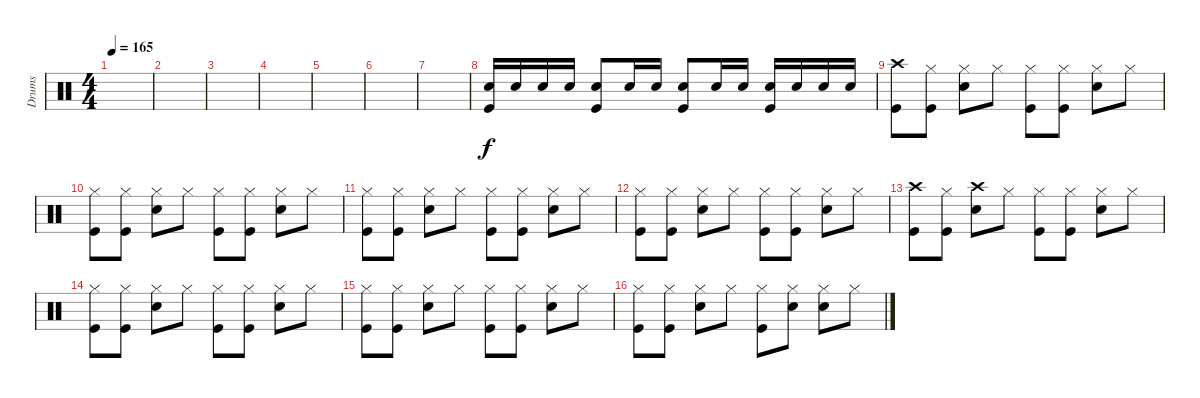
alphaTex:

\track ("Drums" "Drums") {instrument percussion}
\staff {score}
\articulation defaults
\ts (4 4)
\tempo 165
\clef neutral
\ks c
|
|
|
|
|
|
|
("Snare (hit) 2" "Kick (hit)").16 "Snare (hit) 2".16 "Snare (hit) 2".16 "Snare (hit) 2".16 ("Snare (hit) 2" "Kick (hit)").8 "Snare (hit) 2".16 "Snare (hit) 2".16 ("Snare (hit) 2" "Kick (hit)").8 "Snare (hit) 2".16 "Snare (hit) 2".16 ("Snare (hit) 2" "Kick (hit)").16 "Snare (hit) 2".16 "Snare (hit) 2".16 "Snare (hit) 2".16 |
("Crash high (hit)" "Kick (hit)").8 ("Hi-Hat (closed)" "Kick (hit)").8 ("Hi-Hat (closed)" "Snare (hit) 2").8 "Hi-Hat (closed)".8 ("Hi-Hat (closed)" "Kick (hit)").8 ("Hi-Hat (closed)" "Kick (hit)").8 ("Hi-Hat (closed)" "Snare (hit) 2").8 "Hi-Hat (closed)".8 |
("Hi-Hat (closed)" "Kick (hit)").8 ("Hi-Hat (closed)" "Kick (hit)").8 ("Hi-Hat (closed)" "Snare (hit) 2").8 "Hi-Hat (closed)".8 ("Hi-Hat (closed)" "Kick (hit)").8 ("Hi-Hat (closed)" "Kick (hit)").8 ("Hi-Hat (closed)" "Snare (hit) 2").8 "Hi-Hat (closed)".8 |
("Hi-Hat (closed)" "Kick (hit)").8 ("Hi-Hat (closed)" "Kick (hit)").8 ("Hi-Hat (closed)" "Snare (hit) 2").8 "Hi-Hat (closed)".8 ("Hi-Hat (closed)" "Kick (hit)").8 ("Hi-Hat (closed)" "Kick (hit)").8 ("Hi-Hat (closed)" "Snare (hit) 2").8 "Hi-Hat (closed)".8 |
("Hi-Hat (closed)" "Kick (hit)").8 ("Hi-Hat (closed)" "Kick (hit)").8 ("Hi-Hat (closed)" "Snare (hit) 2").8 "Hi-Hat (closed)".8 ("Hi-Hat (closed)" "Kick (hit)").8 ("Hi-Hat (closed)" "Kick (hit)").8 ("Hi-Hat (closed)" "Snare (hit) 2").8 "Hi-Hat (closed)".8 |
("Crash high (hit)" "Kick (hit)").8 ("Hi-Hat (closed)" "Kick (hit)").8 ("Crash high (hit)" "Snare (hit) 2").8 "Hi-Hat (closed)".8 ("Hi-Hat (closed)" "Kick (hit)").8 ("Hi-Hat (closed)" "Kick (hit)").8 ("Hi-Hat (closed)" "Snare (hit) 2").8 "Hi-Hat (closed)".8 |
("Hi-Hat (closed)" "Kick (hit)").8 ("Hi-Hat (closed)" "Kick (hit)").8 ("Hi-Hat (closed)" "Snare (hit) 2").8 "Hi-Hat (closed)".8 ("Hi-Hat (closed)" "Kick (hit)").8 ("Hi-Hat (closed)" "Kick (hit)").8 ("Hi-Hat (closed)" "Snare (hit) 2").8 "Hi-Hat (closed)".8 |
("Hi-Hat (closed)" "Kick (hit)").8 ("Hi-Hat (closed)" "Kick (hit)").8 ("Hi-Hat (closed)" "Snare (hit) 2").8 "Hi-Hat (closed)".8 ("Hi-Hat (closed)" "Kick (hit)").8 ("Hi-Hat (closed)" "Kick (hit)").8 ("Hi-Hat (closed)" "Snare (hit) 2").8 "Hi-Hat (closed)".8 |
("Hi-Hat (closed)" "Kick (hit)").8 ("Hi-Hat (closed)" "Kick (hit)").8 ("Hi-Hat (closed)" "Snare (hit) 2").8 "Hi-Hat (closed)".8 ("Hi-Hat (closed)" "Kick (hit)").8 ("Hi-Hat (closed)" "Snare (hit) 2").8 ("Hi-Hat (closed)" "Snare (hit) 2").8 "Hi-Hat (closed)".8
